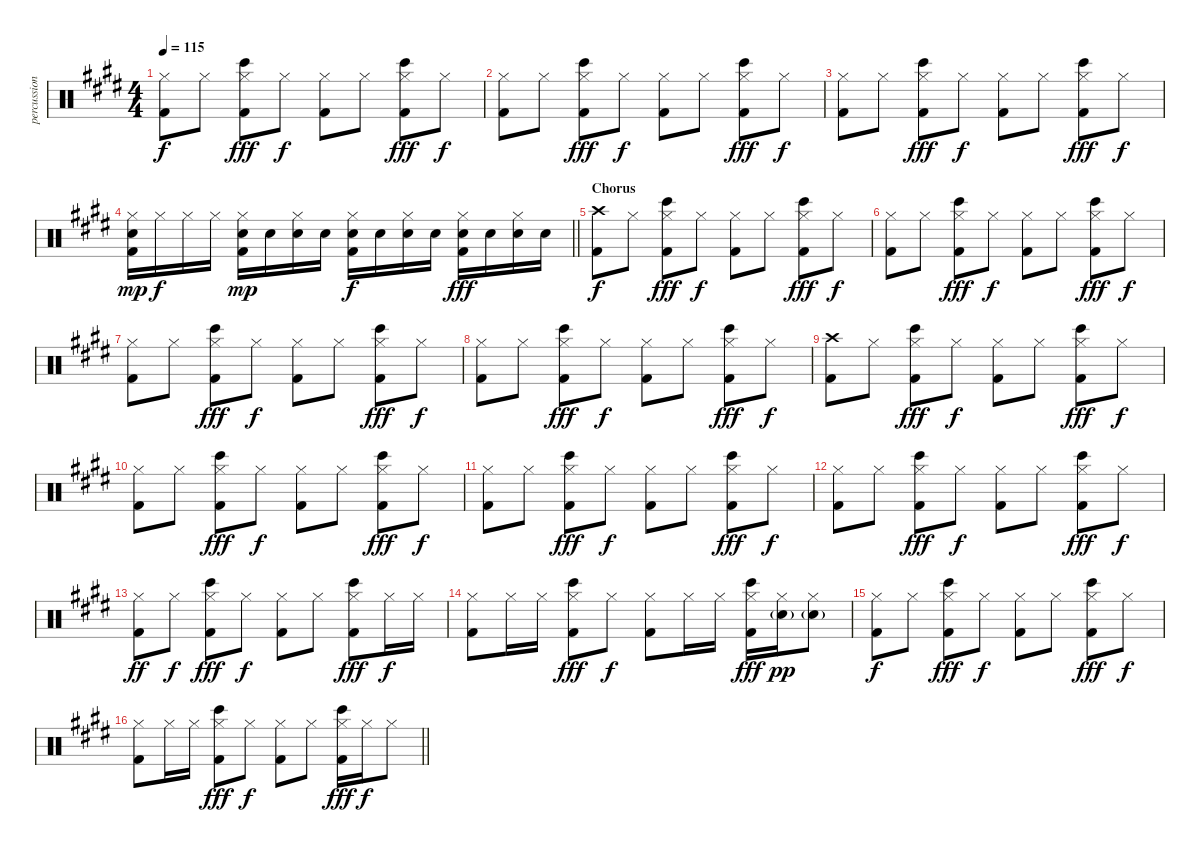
\track ("percussion" "percussion") {instrument percussion}
\staff {score}
\articulation defaults
\ts (4 4)
\tempo 115
\clef neutral
\ks c#minor
("Hi-Hat (closed)" "Kick (hit) 2").8{dy f} "Hi-Hat (closed)".8 ("Bongo High (hit)" "Hi-Hat (closed)" "Kick (hit) 2").8{dy fff} "Hi-Hat (closed)".8{dy f} ("Hi-Hat (closed)" "Kick (hit) 2").8 "Hi-Hat (closed)".8 ("Bongo High (hit)" "Hi-Hat (closed)" "Kick (hit) 2").8{dy fff} "Hi-Hat (closed)".8{dy f} |
("Hi-Hat (closed)" "Kick (hit) 2").8 "Hi-Hat (closed)".8 ("Bongo High (hit)" "Hi-Hat (closed)" "Kick (hit) 2").8{dy fff} "Hi-Hat (closed)".8{dy f} ("Hi-Hat (closed)" "Kick (hit) 2").8 "Hi-Hat (closed)".8 ("Bongo High (hit)" "Hi-Hat (closed)" "Kick (hit) 2").8{dy fff} "Hi-Hat (closed)".8{dy f} |
("Hi-Hat (closed)" "Kick (hit) 2").8 "Hi-Hat (closed)".8 ("Bongo High (hit)" "Hi-Hat (closed)" "Kick (hit) 2").8{dy fff} "Hi-Hat (closed)".8{dy f} ("Hi-Hat (closed)" "Kick (hit) 2").8 "Hi-Hat (closed)".8 ("Bongo High (hit)" "Hi-Hat (closed)" "Kick (hit) 2").8{dy fff} "Hi-Hat (closed)".8{dy f} |
\barLineRight lightlight
("Snare (hit) 2" "Hi-Hat (closed)" "Kick (hit) 2").16{dy mp} "Hi-Hat (closed)".16{dy f} "Hi-Hat (closed)".16 "Hi-Hat (closed)".16 ("Snare (hit) 2" "Hi-Hat (closed)" "Kick (hit) 2").16{dy mp} "Snare (hit) 2".16 ("Snare (hit) 2" "Hi-Hat (closed)").16 "Snare (hit) 2".16 ("Snare (hit) 2" "Hi-Hat (closed)" "Kick (hit) 2").16{dy f} "Snare (hit) 2".16 ("Snare (hit) 2" "Hi-Hat (closed)").16 "Snare (hit) 2".16 ("Snare (hit) 2" "Hi-Hat (closed)" "Kick (hit) 2").16{dy fff} "Snare (hit) 2".16 ("Snare (hit) 2" "Hi-Hat (closed)").16 "Snare (hit) 2".16 |
\section ("" "Chorus")
("Crash high (hit)" "Kick (hit) 2").8{dy f} "Hi-Hat (closed)".8 ("Bongo High (hit)" "Hi-Hat (closed)" "Kick (hit) 2").8{dy fff} "Hi-Hat (closed)".8{dy f} ("Hi-Hat (closed)" "Kick (hit) 2").8 "Hi-Hat (closed)".8 ("Bongo High (hit)" "Hi-Hat (closed)" "Kick (hit) 2").8{dy fff} "Hi-Hat (closed)".8{dy f} |
("Hi-Hat (closed)" "Kick (hit) 2").8 "Hi-Hat (closed)".8 ("Bongo High (hit)" "Hi-Hat (closed)" "Kick (hit) 2").8{dy fff} "Hi-Hat (closed)".8{dy f} ("Hi-Hat (closed)" "Kick (hit) 2").8 "Hi-Hat (closed)".8 ("Bongo High (hit)" "Hi-Hat (closed)" "Kick (hit) 2").8{dy fff} "Hi-Hat (closed)".8{dy f} |
("Hi-Hat (closed)" "Kick (hit) 2").8 "Hi-Hat (closed)".8 ("Bongo High (hit)" "Hi-Hat (closed)" "Kick (hit) 2").8{dy fff} "Hi-Hat (closed)".8{dy f} ("Hi-Hat (closed)" "Kick (hit) 2").8 "Hi-Hat (closed)".8 ("Bongo High (hit)" "Hi-Hat (closed)" "Kick (hit) 2").8{dy fff} "Hi-Hat (closed)".8{dy f} |
("Hi-Hat (closed)" "Kick (hit) 2").8 "Hi-Hat (closed)".8 ("Bongo High (hit)" "Hi-Hat (closed)" "Kick (hit) 2").8{dy fff} "Hi-Hat (closed)".8{dy f} ("Hi-Hat (closed)" "Kick (hit) 2").8 "Hi-Hat (closed)".8 ("Bongo High (hit)" "Hi-Hat (closed)" "Kick (hit) 2").8{dy fff} "Hi-Hat (closed)".8{dy f} |
("Crash high (hit)" "Kick (hit) 2").8 "Hi-Hat (closed)".8 ("Bongo High (hit)" "Hi-Hat (closed)" "Kick (hit) 2").8{dy fff} "Hi-Hat (closed)".8{dy f} ("Hi-Hat (closed)" "Kick (hit) 2").8 "Hi-Hat (closed)".8 ("Bongo High (hit)" "Hi-Hat (closed)" "Kick (hit) 2").8{dy fff} "Hi-Hat (closed)".8{dy f} |
("Hi-Hat (closed)" "Kick (hit) 2").8 "Hi-Hat (closed)".8 ("Bongo High (hit)" "Hi-Hat (closed)" "Kick (hit) 2").8{dy fff} "Hi-Hat (closed)".8{dy f} ("Hi-Hat (closed)" "Kick (hit) 2").8 "Hi-Hat (closed)".8 ("Bongo High (hit)" "Hi-Hat (closed)" "Kick (hit) 2").8{dy fff} "Hi-Hat (closed)".8{dy f} |
("Hi-Hat (closed)" "Kick (hit) 2").8 "Hi-Hat (closed)".8 ("Bongo High (hit)" "Hi-Hat (closed)" "Kick (hit) 2").8{dy fff} "Hi-Hat (closed)".8{dy f} ("Hi-Hat (closed)" "Kick (hit) 2").8 "Hi-Hat (closed)".8 ("Bongo High (hit)" "Hi-Hat (closed)" "Kick (hit) 2").8{dy fff} "Hi-Hat (closed)".8{dy f} |
("Hi-Hat (closed)" "Kick (hit) 2").8 "Hi-Hat (closed)".8 ("Bongo High (hit)" "Hi-Hat (closed)" "Kick (hit) 2").8{dy fff} "Hi-Hat (closed)".8{dy f} ("Hi-Hat (closed)" "Kick (hit) 2").8 "Hi-Hat (closed)".8 ("Bongo High (hit)" "Hi-Hat (closed)" "Kick (hit) 2").8{dy fff} "Hi-Hat (closed)".8{dy f} |
("Hi-Hat (closed)" "Kick (hit) 2").8{dy ff} "Hi-Hat (closed)".8{dy f} ("Bongo High (hit)" "Hi-Hat (closed)" "Kick (hit) 2").8{dy fff} "Hi-Hat (closed)".8{dy f} ("Hi-Hat (closed)" "Kick (hit) 2").8 "Hi-Hat (closed)".8 ("Bongo High (hit)" "Hi-Hat (closed)" "Kick (hit) 2").8{dy fff} "Hi-Hat (closed)".16{dy f} "Hi-Hat (closed)".16 |
("Hi-Hat (closed)" "Kick (hit) 2").8 "Hi-Hat (closed)".16 "Hi-Hat (closed)".16 ("Bongo High (hit)" "Hi-Hat (closed)" "Kick (hit) 2").8{dy fff} "Hi-Hat (closed)".8{dy f} ("Hi-Hat (closed)" "Kick (hit) 2").8 "Hi-Hat (closed)".16 "Hi-Hat (closed)".16 ("Bongo High (hit)" "Hi-Hat (closed)" "Kick (hit) 2").16{dy fff} ("Snare (hit) 2"{g} "Hi-Hat (closed)").16{dy pp} ("Snare (hit) 2"{g} "Hi-Hat (closed)").8 |
("Hi-Hat (closed)" "Kick (hit) 2").8{dy f} "Hi-Hat (closed)".8 ("Bongo High (hit)" "Hi-Hat (closed)" "Kick (hit) 2").8{dy fff} "Hi-Hat (closed)".8{dy f} ("Hi-Hat (closed)" "Kick (hit) 2").8 "Hi-Hat (closed)".8 ("Bongo High (hit)" "Hi-Hat (closed)" "Kick (hit) 2").8{dy fff} "Hi-Hat (closed)".8{dy f} |
\barLineRight lightlight
("Hi-Hat (closed)" "Kick (hit) 2").8 "Hi-Hat (closed)".16 "Hi-Hat (closed)".16 ("Bongo High (hit)" "Hi-Hat (closed)" "Kick (hit) 2").8{dy fff} "Hi-Hat (closed)".8{dy f} ("Hi-Hat (closed)" "Kick (hit) 2").8 "Hi-Hat (closed)".8 ("Bongo High (hit)" "Hi-Hat (closed)" "Kick (hit) 2").16{dy fff} "Hi-Hat (closed)".16{dy f} "Hi-Hat (closed)".8
